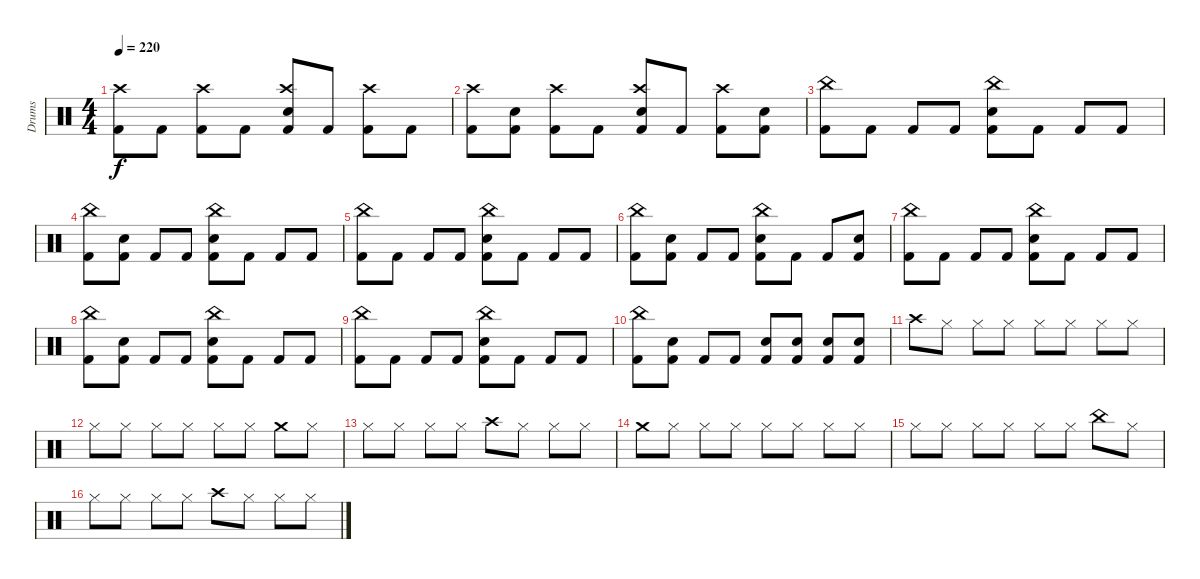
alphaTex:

\track ("Drums" "Drums") {instrument percussion}
\staff {score}
\articulation defaults
\ts (4 4)
\tempo 220
\clef neutral
\ks c
("Kick (hit) 2" "Crash high (hit)").8{dy f} "Kick (hit) 2".8 ("Kick (hit) 2" "Crash high (hit)").8 "Kick (hit) 2".8 ("Kick (hit) 2" "Crash high (hit)" "Electric Snare (hit)").8 "Kick (hit) 2".8 ("Kick (hit) 2" "Crash high (hit)").8 "Kick (hit) 2".8 |
("Kick (hit) 2" "Crash high (hit)").8 ("Kick (hit) 2" "Electric Snare (hit)").8 ("Kick (hit) 2" "Crash high (hit)").8 "Kick (hit) 2".8 ("Kick (hit) 2" "Crash high (hit)" "Electric Snare (hit)").8 "Kick (hit) 2".8 ("Kick (hit) 2" "Crash high (hit)").8 ("Kick (hit) 2" "Electric Snare (hit)").8 |
("Kick (hit) 2" "China (hit)").8 "Kick (hit) 2".8 "Kick (hit) 2".8 "Kick (hit) 2".8 ("Kick (hit) 2" "China (hit)" "Electric Snare (hit)").8 "Kick (hit) 2".8 "Kick (hit) 2".8 "Kick (hit) 2".8 |
("Kick (hit) 2" "China (hit)").8 ("Kick (hit) 2" "Electric Snare (hit)").8 "Kick (hit) 2".8 "Kick (hit) 2".8 ("Kick (hit) 2" "China (hit)" "Electric Snare (hit)").8 "Kick (hit) 2".8 "Kick (hit) 2".8 "Kick (hit) 2".8 |
("Kick (hit) 2" "China (hit)").8 "Kick (hit) 2".8 "Kick (hit) 2".8 "Kick (hit) 2".8 ("Kick (hit) 2" "China (hit)" "Electric Snare (hit)").8 "Kick (hit) 2".8 "Kick (hit) 2".8 "Kick (hit) 2".8 |
("Kick (hit) 2" "China (hit)").8 ("Kick (hit) 2" "Electric Snare (hit)").8 "Kick (hit) 2".8 "Kick (hit) 2".8 ("Kick (hit) 2" "China (hit)" "Electric Snare (hit)").8 "Kick (hit) 2".8 "Kick (hit) 2".8 ("Kick (hit) 2" "Electric Snare (hit)").8 |
("Kick (hit) 2" "China (hit)").8 "Kick (hit) 2".8 "Kick (hit) 2".8 "Kick (hit) 2".8 ("Kick (hit) 2" "China (hit)" "Electric Snare (hit)").8 "Kick (hit) 2".8 "Kick (hit) 2".8 "Kick (hit) 2".8 |
("Kick (hit) 2" "China (hit)").8 ("Kick (hit) 2" "Electric Snare (hit)").8 "Kick (hit) 2".8 "Kick (hit) 2".8 ("Kick (hit) 2" "China (hit)" "Electric Snare (hit)").8 "Kick (hit) 2".8 "Kick (hit) 2".8 "Kick (hit) 2".8 |
("Kick (hit) 2" "China (hit)").8 "Kick (hit) 2".8 "Kick (hit) 2".8 "Kick (hit) 2".8 ("Kick (hit) 2" "China (hit)" "Electric Snare (hit)").8 "Kick (hit) 2".8 "Kick (hit) 2".8 "Kick (hit) 2".8 |
("Kick (hit) 2" "China (hit)").8 ("Kick (hit) 2" "Electric Snare (hit)").8 "Kick (hit) 2".8 "Kick (hit) 2".8 ("Kick (hit) 2" "Electric Snare (hit)").8 ("Kick (hit) 2" "Electric Snare (hit)").8 ("Kick (hit) 2" "Electric Snare (hit)").8 ("Kick (hit) 2" "Electric Snare (hit)").8 |
"Crash high (hit)".8 "Hi-Hat (closed)".8 "Hi-Hat (closed)".8 "Hi-Hat (closed)".8 "Hi-Hat (closed)".8 "Hi-Hat (closed)".8 "Hi-Hat (closed)".8 "Hi-Hat (closed)".8 |
"Hi-Hat (closed)".8 "Hi-Hat (closed)".8 "Hi-Hat (closed)".8 "Hi-Hat (closed)".8 "Hi-Hat (closed)".8 "Hi-Hat (closed)".8 "Crash medium (hit)".8 "Hi-Hat (closed)".8 |
"Hi-Hat (closed)".8 "Hi-Hat (closed)".8 "Hi-Hat (closed)".8 "Hi-Hat (closed)".8 "Crash high (hit)".8 "Hi-Hat (closed)".8 "Hi-Hat (closed)".8 "Hi-Hat (closed)".8 |
"Crash medium (hit)".8 "Hi-Hat (closed)".8 "Hi-Hat (closed)".8 "Hi-Hat (closed)".8 "Hi-Hat (closed)".8 "Hi-Hat (closed)".8 "Hi-Hat (closed)".8 "Hi-Hat (closed)".8 |
"Hi-Hat (closed)".8 "Hi-Hat (closed)".8 "Hi-Hat (closed)".8 "Hi-Hat (closed)".8 "Hi-Hat (closed)".8 "Hi-Hat (closed)".8 "China (hit)".8 "Hi-Hat (closed)".8 |
"Hi-Hat (closed)".8 "Hi-Hat (closed)".8 "Hi-Hat (closed)".8 "Hi-Hat (closed)".8 "Crash high (hit)".8 "Hi-Hat (closed)".8 "Hi-Hat (closed)".8 "Hi-Hat (closed)".8
